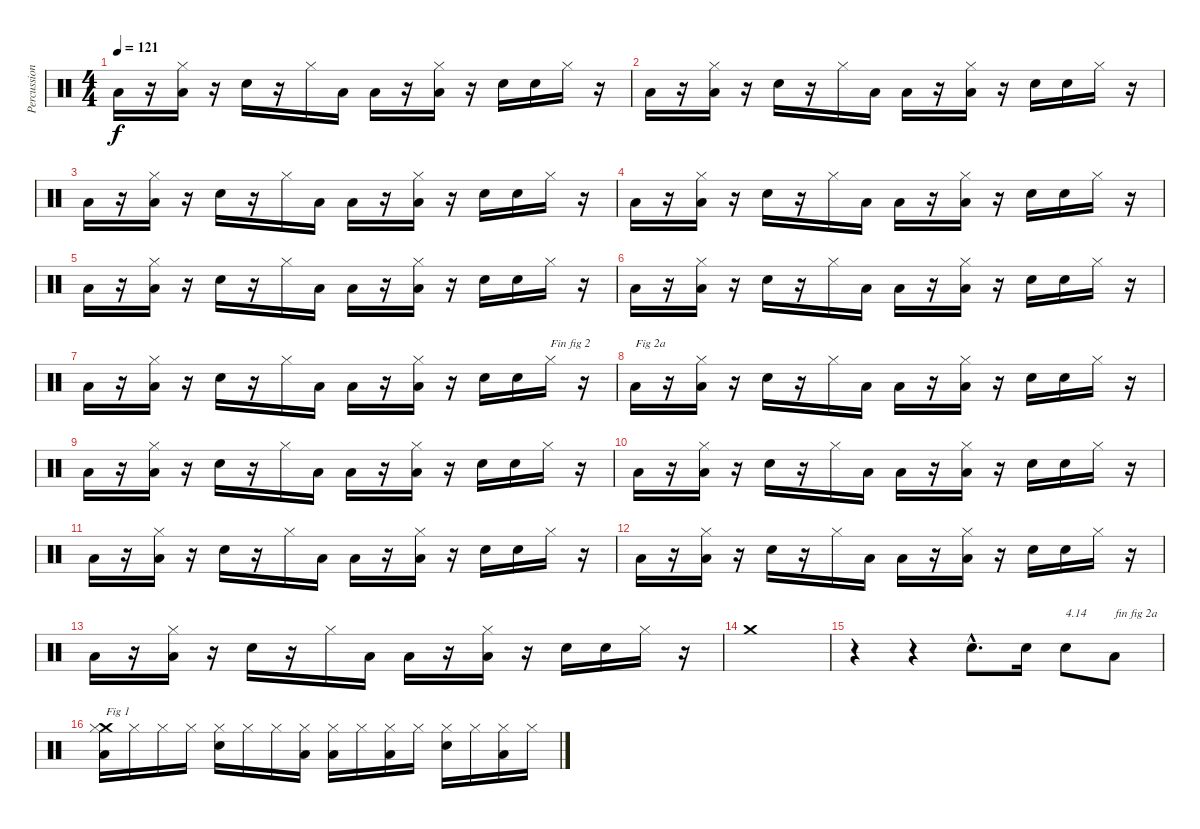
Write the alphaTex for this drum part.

\track ("Percussions" "Percussion") {instrument percussion}
\staff {score}
\articulation defaults
\ts (4 4)
\tempo 121
\clef neutral
\ks c "Low Floor Tom (hit)".16{dy f}
r.16 ("Low Floor Tom (hit)" "Hi-Hat (closed)").16 r.16 "Electric Snare (hit)".16 r.16 "Hi-Hat (closed)".16 "Low Floor Tom (hit)".16 "Low Floor Tom (hit)".16 r.16 ("Low Floor Tom (hit)" "Hi-Hat (closed)").16 r.16 "Electric Snare (hit)".16 "Electric Snare (hit)".16 "Hi-Hat (closed)".16 r.16 |
"Low Floor Tom (hit)".16 r.16 ("Low Floor Tom (hit)" "Hi-Hat (closed)").16 r.16 "Electric Snare (hit)".16 r.16 "Hi-Hat (closed)".16 "Low Floor Tom (hit)".16 "Low Floor Tom (hit)".16 r.16 ("Low Floor Tom (hit)" "Hi-Hat (closed)").16 r.16 "Electric Snare (hit)".16 "Electric Snare (hit)".16 "Hi-Hat (closed)".16 r.16 |
"Low Floor Tom (hit)".16 r.16 ("Low Floor Tom (hit)" "Hi-Hat (closed)").16 r.16 "Electric Snare (hit)".16 r.16 "Hi-Hat (closed)".16 "Low Floor Tom (hit)".16 "Low Floor Tom (hit)".16 r.16 ("Low Floor Tom (hit)" "Hi-Hat (closed)").16 r.16 "Electric Snare (hit)".16 "Electric Snare (hit)".16 "Hi-Hat (closed)".16 r.16 |
"Low Floor Tom (hit)".16 r.16 ("Low Floor Tom (hit)" "Hi-Hat (closed)").16 r.16 "Electric Snare (hit)".16 r.16 "Hi-Hat (closed)".16 "Low Floor Tom (hit)".16 "Low Floor Tom (hit)".16 r.16 ("Low Floor Tom (hit)" "Hi-Hat (closed)").16 r.16 "Electric Snare (hit)".16 "Electric Snare (hit)".16 "Hi-Hat (closed)".16 r.16 |
"Low Floor Tom (hit)".16 r.16 ("Low Floor Tom (hit)" "Hi-Hat (closed)").16 r.16 "Electric Snare (hit)".16 r.16 "Hi-Hat (closed)".16 "Low Floor Tom (hit)".16 "Low Floor Tom (hit)".16 r.16 ("Low Floor Tom (hit)" "Hi-Hat (closed)").16 r.16 "Electric Snare (hit)".16 "Electric Snare (hit)".16 "Hi-Hat (closed)".16 r.16 |
"Low Floor Tom (hit)".16 r.16 ("Low Floor Tom (hit)" "Hi-Hat (closed)").16 r.16 "Electric Snare (hit)".16 r.16 "Hi-Hat (closed)".16 "Low Floor Tom (hit)".16 "Low Floor Tom (hit)".16 r.16 ("Low Floor Tom (hit)" "Hi-Hat (closed)").16 r.16 "Electric Snare (hit)".16 "Electric Snare (hit)".16 "Hi-Hat (closed)".16 r.16 |
"Low Floor Tom (hit)".16 r.16 ("Low Floor Tom (hit)" "Hi-Hat (closed)").16 r.16 "Electric Snare (hit)".16 r.16 "Hi-Hat (closed)".16 "Low Floor Tom (hit)".16 "Low Floor Tom (hit)".16 r.16 ("Low Floor Tom (hit)" "Hi-Hat (closed)").16 r.16 "Electric Snare (hit)".16 "Electric Snare (hit)".16 "Hi-Hat (closed)".16{txt "Fin fig 2"} r.16 |
"Low Floor Tom (hit)".16{txt "Fig 2a"} r.16 ("Low Floor Tom (hit)" "Hi-Hat (closed)").16 r.16 "Electric Snare (hit)".16 r.16 "Hi-Hat (closed)".16 "Low Floor Tom (hit)".16 "Low Floor Tom (hit)".16 r.16 ("Low Floor Tom (hit)" "Hi-Hat (closed)").16 r.16 "Electric Snare (hit)".16 "Electric Snare (hit)".16 "Hi-Hat (closed)".16 r.16 |
"Low Floor Tom (hit)".16 r.16 ("Low Floor Tom (hit)" "Hi-Hat (closed)").16 r.16 "Electric Snare (hit)".16 r.16 "Hi-Hat (closed)".16 "Low Floor Tom (hit)".16 "Low Floor Tom (hit)".16 r.16 ("Low Floor Tom (hit)" "Hi-Hat (closed)").16 r.16 "Electric Snare (hit)".16 "Electric Snare (hit)".16 "Hi-Hat (closed)".16 r.16 |
"Low Floor Tom (hit)".16 r.16 ("Low Floor Tom (hit)" "Hi-Hat (closed)").16 r.16 "Electric Snare (hit)".16 r.16 "Hi-Hat (closed)".16 "Low Floor Tom (hit)".16 "Low Floor Tom (hit)".16 r.16 ("Low Floor Tom (hit)" "Hi-Hat (closed)").16 r.16 "Electric Snare (hit)".16 "Electric Snare (hit)".16 "Hi-Hat (closed)".16 r.16 |
"Low Floor Tom (hit)".16 r.16 ("Low Floor Tom (hit)" "Hi-Hat (closed)").16 r.16 "Electric Snare (hit)".16 r.16 "Hi-Hat (closed)".16 "Low Floor Tom (hit)".16 "Low Floor Tom (hit)".16 r.16 ("Low Floor Tom (hit)" "Hi-Hat (closed)").16 r.16 "Electric Snare (hit)".16 "Electric Snare (hit)".16 "Hi-Hat (closed)".16 r.16 |
"Low Floor Tom (hit)".16 r.16 ("Low Floor Tom (hit)" "Hi-Hat (closed)").16 r.16 "Electric Snare (hit)".16 r.16 "Hi-Hat (closed)".16 "Low Floor Tom (hit)".16 "Low Floor Tom (hit)".16 r.16 ("Low Floor Tom (hit)" "Hi-Hat (closed)").16 r.16 "Electric Snare (hit)".16 "Electric Snare (hit)".16 "Hi-Hat (closed)".16 r.16 |
"Low Floor Tom (hit)".16 r.16 ("Low Floor Tom (hit)" "Hi-Hat (closed)").16 r.16 "Electric Snare (hit)".16 r.16 "Hi-Hat (closed)".16 "Low Floor Tom (hit)".16 "Low Floor Tom (hit)".16 r.16 ("Low Floor Tom (hit)" "Hi-Hat (closed)").16 r.16 "Electric Snare (hit)".16 "Electric Snare (hit)".16 "Hi-Hat (closed)".16 r.16 |
"Crash medium (hit)".1 |
r.4 r.4 "Electric Snare (hit)"{hac}.8{d} "Electric Snare (hit)".16 "Electric Snare (hit)".8{txt "4.14"} "Low Floor Tom (hit)".8{txt "fin fig 2a"} |
("Low Floor Tom (hit)" "Crash medium (hit)" "Hi-Hat (closed)").16{txt "Fig 1"} "Hi-Hat (closed)".16 "Hi-Hat (closed)".16 "Hi-Hat (closed)".16 ("Electric Snare (hit)" "Hi-Hat (closed)").16 "Hi-Hat (closed)".16 "Hi-Hat (closed)".16 ("Low Floor Tom (hit)" "Hi-Hat (closed)").16 ("Low Floor Tom (hit)" "Hi-Hat (closed)").16 "Hi-Hat (closed)".16 ("Low Floor Tom (hit)" "Hi-Hat (closed)").16 "Hi-Hat (closed)".16 ("Electric Snare (hit)" "Hi-Hat (closed)").16 "Hi-Hat (closed)".16 ("Low Floor Tom (hit)" "Hi-Hat (closed)").16 "Hi-Hat (closed)".16
